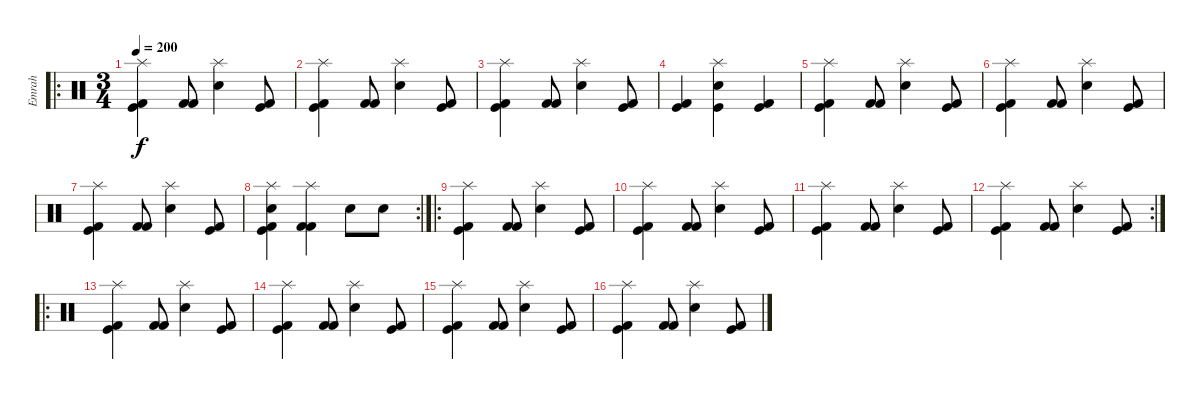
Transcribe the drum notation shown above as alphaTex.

\track ("Emrah" "Emrah") {instrument percussion}
\staff {score}
\articulation defaults
\ro
\ts (3 4)
\tempo 200
\clef neutral
\ks c
("Splash (hit)" "Kick (hit)" "Kick (hit) 2").4{dy f} ("Kick (hit) 2" "Kick (hit) 2").8 ("Splash (hit)" "Snare (hit) 2").4 ("Kick (hit)" "Kick (hit) 2").8 |
("Splash (hit)" "Kick (hit)" "Kick (hit) 2").4 ("Kick (hit) 2" "Kick (hit) 2").8 ("Splash (hit)" "Snare (hit) 2").4 ("Kick (hit)" "Kick (hit) 2").8 |
("Splash (hit)" "Kick (hit)" "Kick (hit) 2").4 ("Kick (hit) 2" "Kick (hit) 2").8 ("Splash (hit)" "Snare (hit) 2").4 ("Kick (hit)" "Kick (hit) 2").8 |
("Kick (hit)" "Kick (hit) 2").4 ("Splash (hit)" "Snare (hit) 2" "Kick (hit)").4 ("Kick (hit)" "Kick (hit) 2").4 |
("Splash (hit)" "Kick (hit)" "Kick (hit) 2").4 ("Kick (hit) 2" "Kick (hit) 2").8 ("Splash (hit)" "Snare (hit) 2").4 ("Kick (hit)" "Kick (hit) 2").8 |
("Splash (hit)" "Kick (hit)" "Kick (hit) 2").4 ("Kick (hit) 2" "Kick (hit) 2").8 ("Splash (hit)" "Snare (hit) 2").4 ("Kick (hit)" "Kick (hit) 2").8 |
("Splash (hit)" "Kick (hit)" "Kick (hit) 2").4 ("Kick (hit) 2" "Kick (hit) 2").8 ("Splash (hit)" "Snare (hit) 2").4 ("Kick (hit)" "Kick (hit) 2").8 |
\rc 2
("Splash (hit)" "Snare (hit) 2" "Kick (hit)" "Kick (hit) 2").4 ("Splash (hit)" "Kick (hit) 2" "Kick (hit) 2").4 "Snare (hit) 2".8 "Snare (hit) 2".8 |
\ro
("Splash (hit)" "Kick (hit)" "Kick (hit) 2").4 ("Kick (hit) 2" "Kick (hit) 2").8 ("Splash (hit)" "Snare (hit) 2").4 ("Kick (hit)" "Kick (hit) 2").8 |
("Splash (hit)" "Kick (hit)" "Kick (hit) 2").4 ("Kick (hit) 2" "Kick (hit) 2").8 ("Splash (hit)" "Snare (hit) 2").4 ("Kick (hit)" "Kick (hit) 2").8 |
("Splash (hit)" "Kick (hit)" "Kick (hit) 2").4 ("Kick (hit) 2" "Kick (hit) 2").8 ("Splash (hit)" "Snare (hit) 2").4 ("Kick (hit)" "Kick (hit) 2").8 |
\rc 2
("Splash (hit)" "Kick (hit)" "Kick (hit) 2").4 ("Kick (hit) 2" "Kick (hit) 2").8 ("Splash (hit)" "Snare (hit) 2").4 ("Kick (hit)" "Kick (hit) 2").8 |
\ro
("Splash (hit)" "Kick (hit)" "Kick (hit) 2").4 ("Kick (hit) 2" "Kick (hit) 2").8 ("Splash (hit)" "Snare (hit) 2").4 ("Kick (hit)" "Kick (hit) 2").8 |
("Splash (hit)" "Kick (hit)" "Kick (hit) 2").4 ("Kick (hit) 2" "Kick (hit) 2").8 ("Splash (hit)" "Snare (hit) 2").4 ("Kick (hit)" "Kick (hit) 2").8 |
("Splash (hit)" "Kick (hit)" "Kick (hit) 2").4 ("Kick (hit) 2" "Kick (hit) 2").8 ("Splash (hit)" "Snare (hit) 2").4 ("Kick (hit)" "Kick (hit) 2").8 |
("Splash (hit)" "Kick (hit)" "Kick (hit) 2").4 ("Kick (hit) 2" "Kick (hit) 2").8 ("Splash (hit)" "Snare (hit) 2").4 ("Kick (hit)" "Kick (hit) 2").8
